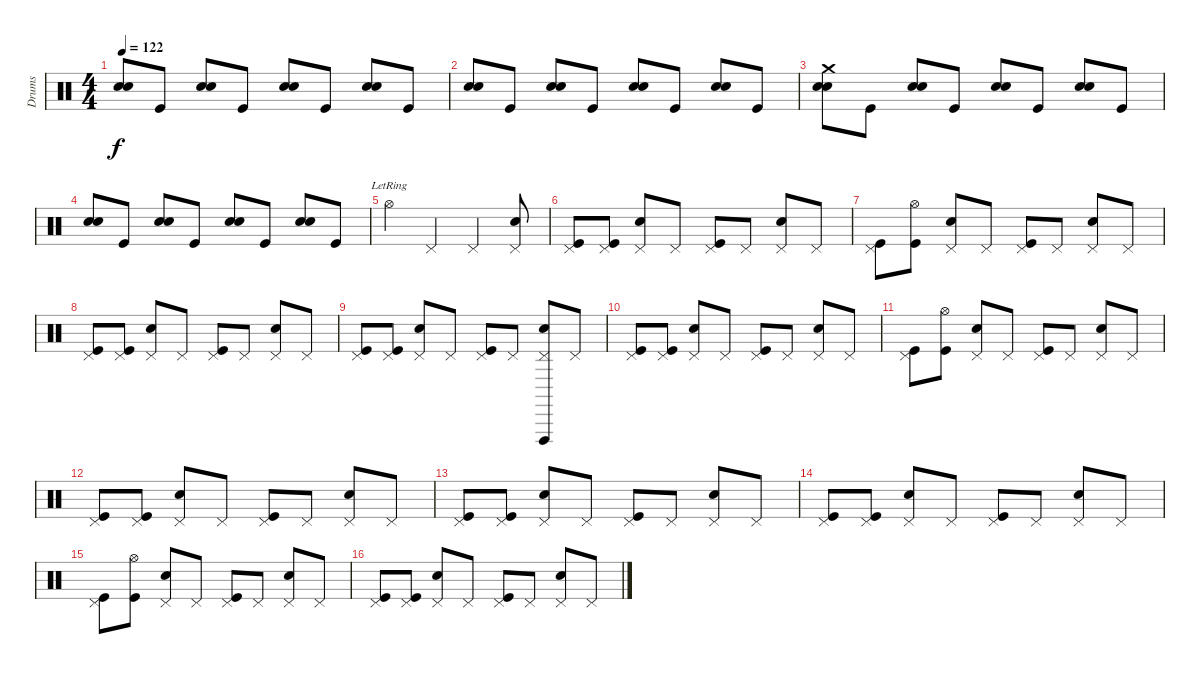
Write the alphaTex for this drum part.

\track ("Drums" "Drums") {instrument percussion}
\staff {score}
\articulation defaults
\ts (4 4)
\tempo 122
\clef neutral
\ks c
("Snare (hit) 2" "Snare (hit) 2").8{dy f} "Kick (hit)".8 ("Snare (hit) 2" "Snare (hit) 2").8 "Kick (hit)".8 ("Snare (hit) 2" "Snare (hit) 2").8 "Kick (hit)".8 ("Snare (hit) 2" "Snare (hit) 2").8 "Kick (hit)".8 |
("Snare (hit) 2" "Snare (hit) 2").8 "Kick (hit)".8 ("Snare (hit) 2" "Snare (hit) 2").8 "Kick (hit)".8 ("Snare (hit) 2" "Snare (hit) 2").8 "Kick (hit)".8 ("Snare (hit) 2" "Snare (hit) 2").8 "Kick (hit)".8 |
("Snare (hit) 2" "Snare (hit) 2" "Crash medium (hit)").8 "Kick (hit)".8 ("Snare (hit) 2" "Snare (hit) 2").8 "Kick (hit)".8 ("Snare (hit) 2" "Snare (hit) 2").8 "Kick (hit)".8 ("Snare (hit) 2" "Snare (hit) 2").8 "Kick (hit)".8 |
("Snare (hit) 2" "Snare (hit) 2").8 "Kick (hit)".8 ("Snare (hit) 2" "Snare (hit) 2").8 "Kick (hit)".8 ("Snare (hit) 2" "Snare (hit) 2").8 "Kick (hit)".8 ("Snare (hit) 2" "Snare (hit) 2").8 "Kick (hit)".8 |
"Hi-Hat (open)"{lr}.4 "Pedal Hi-Hat (hit)".4 "Pedal Hi-Hat (hit)".4 ("Pedal Hi-Hat (hit)" "Snare (hit) 2").8 |
("Pedal Hi-Hat (hit)" "Kick (hit)").8 ("Pedal Hi-Hat (hit)" "Kick (hit)").8 ("Pedal Hi-Hat (hit)" "Snare (hit) 2").8 "Pedal Hi-Hat (hit)".8 ("Pedal Hi-Hat (hit)" "Kick (hit)").8 "Pedal Hi-Hat (hit)".8 ("Pedal Hi-Hat (hit)" "Snare (hit) 2").8 "Pedal Hi-Hat (hit)".8 |
("Pedal Hi-Hat (hit)" "Kick (hit)").8 ("Hi-Hat (open)" "Kick (hit)").8 ("Pedal Hi-Hat (hit)" "Snare (hit) 2").8 "Pedal Hi-Hat (hit)".8 ("Pedal Hi-Hat (hit)" "Kick (hit)").8 "Pedal Hi-Hat (hit)".8 ("Pedal Hi-Hat (hit)" "Snare (hit) 2").8 "Pedal Hi-Hat (hit)".8 |
("Pedal Hi-Hat (hit)" "Kick (hit)").8 ("Pedal Hi-Hat (hit)" "Kick (hit)").8 ("Pedal Hi-Hat (hit)" "Snare (hit) 2").8 "Pedal Hi-Hat (hit)".8 ("Pedal Hi-Hat (hit)" "Kick (hit)").8 "Pedal Hi-Hat (hit)".8 ("Pedal Hi-Hat (hit)" "Snare (hit) 2").8 "Pedal Hi-Hat (hit)".8 |
("Pedal Hi-Hat (hit)" "Kick (hit)").8 ("Pedal Hi-Hat (hit)" "Kick (hit)").8 ("Pedal Hi-Hat (hit)" "Snare (hit) 2").8 "Pedal Hi-Hat (hit)".8 ("Pedal Hi-Hat (hit)" "Kick (hit)").8 "Pedal Hi-Hat (hit)".8 ("Pedal Hi-Hat (hit)" "Snare (hit) 2" "Vibraslap (hit)").8 "Pedal Hi-Hat (hit)".8 |
("Pedal Hi-Hat (hit)" "Kick (hit)").8 ("Pedal Hi-Hat (hit)" "Kick (hit)").8 ("Pedal Hi-Hat (hit)" "Snare (hit) 2").8 "Pedal Hi-Hat (hit)".8 ("Pedal Hi-Hat (hit)" "Kick (hit)").8 "Pedal Hi-Hat (hit)".8 ("Pedal Hi-Hat (hit)" "Snare (hit) 2").8 "Pedal Hi-Hat (hit)".8 |
("Pedal Hi-Hat (hit)" "Kick (hit)").8 ("Hi-Hat (open)" "Kick (hit)").8 ("Pedal Hi-Hat (hit)" "Snare (hit) 2").8 "Pedal Hi-Hat (hit)".8 ("Pedal Hi-Hat (hit)" "Kick (hit)").8 "Pedal Hi-Hat (hit)".8 ("Pedal Hi-Hat (hit)" "Snare (hit) 2").8 "Pedal Hi-Hat (hit)".8 |
("Pedal Hi-Hat (hit)" "Kick (hit)").8 ("Pedal Hi-Hat (hit)" "Kick (hit)").8 ("Pedal Hi-Hat (hit)" "Snare (hit) 2").8 "Pedal Hi-Hat (hit)".8 ("Pedal Hi-Hat (hit)" "Kick (hit)").8 "Pedal Hi-Hat (hit)".8 ("Pedal Hi-Hat (hit)" "Snare (hit) 2").8 "Pedal Hi-Hat (hit)".8 |
("Pedal Hi-Hat (hit)" "Kick (hit)").8 ("Pedal Hi-Hat (hit)" "Kick (hit)").8 ("Pedal Hi-Hat (hit)" "Snare (hit) 2").8 "Pedal Hi-Hat (hit)".8 ("Pedal Hi-Hat (hit)" "Kick (hit)").8 "Pedal Hi-Hat (hit)".8 ("Pedal Hi-Hat (hit)" "Snare (hit) 2").8 "Pedal Hi-Hat (hit)".8 |
("Pedal Hi-Hat (hit)" "Kick (hit)").8 ("Pedal Hi-Hat (hit)" "Kick (hit)").8 ("Pedal Hi-Hat (hit)" "Snare (hit) 2").8 "Pedal Hi-Hat (hit)".8 ("Pedal Hi-Hat (hit)" "Kick (hit)").8 "Pedal Hi-Hat (hit)".8 ("Pedal Hi-Hat (hit)" "Snare (hit) 2").8 "Pedal Hi-Hat (hit)".8 |
("Pedal Hi-Hat (hit)" "Kick (hit)").8 ("Hi-Hat (open)" "Kick (hit)").8 ("Pedal Hi-Hat (hit)" "Snare (hit) 2").8 "Pedal Hi-Hat (hit)".8 ("Pedal Hi-Hat (hit)" "Kick (hit)").8 "Pedal Hi-Hat (hit)".8 ("Pedal Hi-Hat (hit)" "Snare (hit) 2").8 "Pedal Hi-Hat (hit)".8 |
("Pedal Hi-Hat (hit)" "Kick (hit)").8 ("Pedal Hi-Hat (hit)" "Kick (hit)").8 ("Pedal Hi-Hat (hit)" "Snare (hit) 2").8 "Pedal Hi-Hat (hit)".8 ("Pedal Hi-Hat (hit)" "Kick (hit)").8 "Pedal Hi-Hat (hit)".8 ("Pedal Hi-Hat (hit)" "Snare (hit) 2").8 "Pedal Hi-Hat (hit)".8
